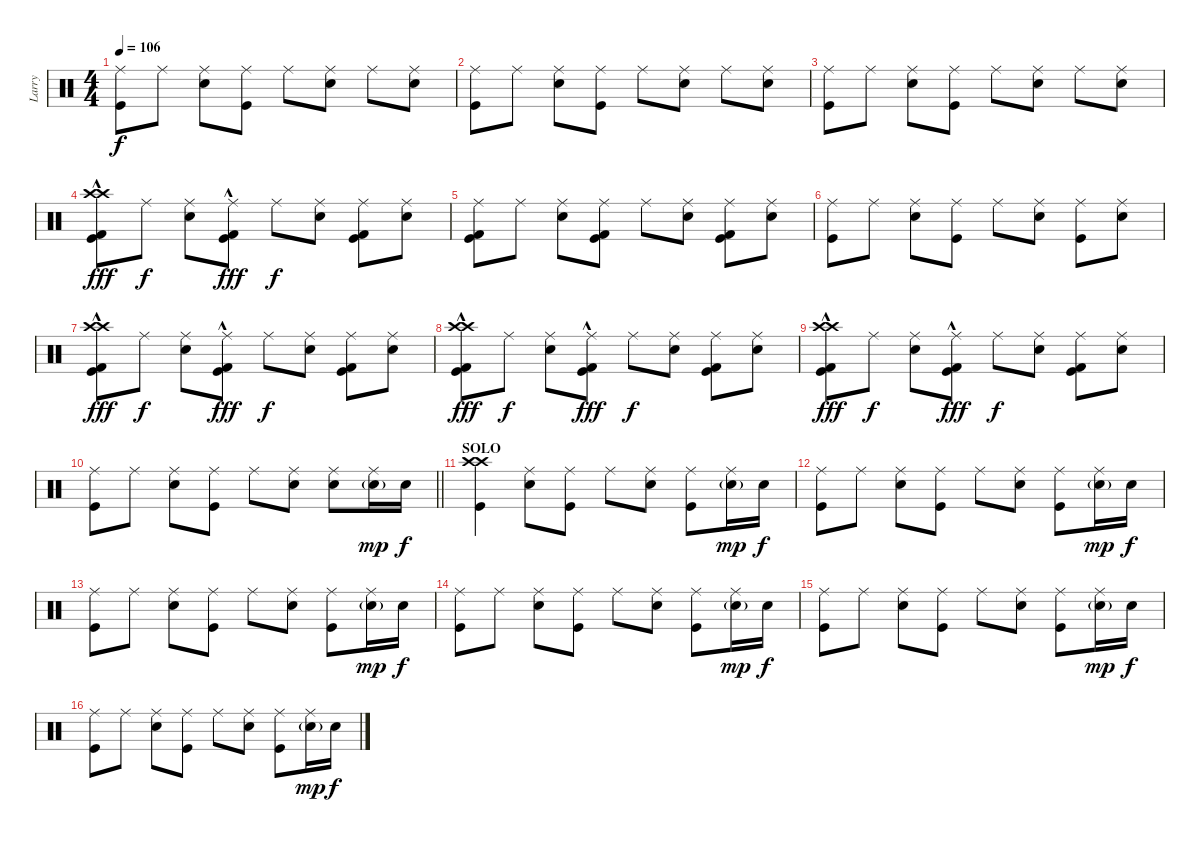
\track ("Larry" "Larry") {instrument percussion}
\staff {score}
\articulation defaults
\ts (4 4)
\tempo 106
\clef neutral
\ks c
("Ride (middle)" "Kick (hit)").8{dy f} "Ride (middle)".8 ("Ride (middle)" "Snare (hit) 2").8 ("Ride (middle)" "Kick (hit)").8 "Ride (middle)".8 ("Ride (middle)" "Snare (hit) 2").8 "Ride (middle)".8 ("Ride (middle)" "Snare (hit) 2").8 |
("Ride (middle)" "Kick (hit)").8 "Ride (middle)".8 ("Ride (middle)" "Snare (hit) 2").8 ("Ride (middle)" "Kick (hit)").8 "Ride (middle)".8 ("Ride (middle)" "Snare (hit) 2").8 "Ride (middle)".8 ("Ride (middle)" "Snare (hit) 2").8 |
("Ride (middle)" "Kick (hit)").8 "Ride (middle)".8 ("Ride (middle)" "Snare (hit) 2").8 ("Ride (middle)" "Kick (hit)").8 "Ride (middle)".8 ("Ride (middle)" "Snare (hit) 2").8 "Ride (middle)".8 ("Ride (middle)" "Snare (hit) 2").8 |
("Crash high (hit)" "Crash high (hit)" "Kick (hit) 2" "Kick (hit)"{hac}).8{dy fff} "Ride (middle)".8{dy f} ("Ride (middle)" "Snare (hit) 2").8 ("Ride (middle)" "Kick (hit) 2" "Kick (hit)"{hac}).8{dy fff} "Ride (middle)".8{dy f} ("Ride (middle)" "Snare (hit) 2").8 ("Ride (middle)" "Kick (hit) 2" "Kick (hit)").8 ("Ride (middle)" "Snare (hit) 2").8 |
("Ride (middle)" "Kick (hit) 2" "Kick (hit)").8 "Ride (middle)".8 ("Ride (middle)" "Snare (hit) 2").8 ("Ride (middle)" "Kick (hit) 2" "Kick (hit)").8 "Ride (middle)".8 ("Ride (middle)" "Snare (hit) 2").8 ("Ride (middle)" "Kick (hit) 2" "Kick (hit)").8 ("Ride (middle)" "Snare (hit) 2").8 |
("Ride (middle)" "Kick (hit)").8 "Ride (middle)".8 ("Ride (middle)" "Snare (hit) 2").8 ("Ride (middle)" "Kick (hit)").8 "Ride (middle)".8 ("Ride (middle)" "Snare (hit) 2").8 ("Ride (middle)" "Kick (hit)").8 ("Ride (middle)" "Snare (hit) 2").8 |
("Crash high (hit)" "Crash high (hit)" "Kick (hit) 2" "Kick (hit)"{hac}).8{dy fff} "Ride (middle)".8{dy f} ("Ride (middle)" "Snare (hit) 2").8 ("Ride (middle)" "Kick (hit) 2" "Kick (hit)"{hac}).8{dy fff} "Ride (middle)".8{dy f} ("Ride (middle)" "Snare (hit) 2").8 ("Ride (middle)" "Kick (hit) 2" "Kick (hit)").8 ("Ride (middle)" "Snare (hit) 2").8 |
("Crash high (hit)" "Crash high (hit)" "Kick (hit) 2" "Kick (hit)"{hac}).8{dy fff} "Ride (middle)".8{dy f} ("Ride (middle)" "Snare (hit) 2").8 ("Ride (middle)" "Kick (hit) 2" "Kick (hit)"{hac}).8{dy fff} "Ride (middle)".8{dy f} ("Ride (middle)" "Snare (hit) 2").8 ("Ride (middle)" "Kick (hit) 2" "Kick (hit)").8 ("Ride (middle)" "Snare (hit) 2").8 |
("Crash high (hit)" "Crash high (hit)" "Kick (hit) 2" "Kick (hit)"{hac}).8{dy fff} "Ride (middle)".8{dy f} ("Ride (middle)" "Snare (hit) 2").8 ("Ride (middle)" "Kick (hit) 2" "Kick (hit)"{hac}).8{dy fff} "Ride (middle)".8{dy f} ("Ride (middle)" "Snare (hit) 2").8 ("Ride (middle)" "Kick (hit) 2" "Kick (hit)").8 ("Ride (middle)" "Snare (hit) 2").8 |
\barLineRight lightlight
("Ride (middle)" "Kick (hit)").8 "Ride (middle)".8 ("Ride (middle)" "Snare (hit) 2").8 ("Ride (middle)" "Kick (hit)").8 "Ride (middle)".8 ("Ride (middle)" "Snare (hit) 2").8 ("Ride (middle)" "Snare (hit) 2").8 ("Ride (middle)" "Snare (hit) 2"{g}).16{dy mp} "Snare (hit) 2".16{dy f} |
\section ("" "SOLO")
("Crash high (hit)" "Crash high (hit)" "Kick (hit)").4 ("Ride (middle)" "Snare (hit) 2").8 ("Ride (middle)" "Kick (hit)").8 "Ride (middle)".8 ("Ride (middle)" "Snare (hit) 2").8 ("Ride (middle)" "Kick (hit)").8 ("Ride (middle)" "Snare (hit) 2"{g}).16{dy mp} "Snare (hit) 2".16{dy f} |
("Ride (middle)" "Kick (hit)").8 "Ride (middle)".8 ("Ride (middle)" "Snare (hit) 2").8 ("Ride (middle)" "Kick (hit)").8 "Ride (middle)".8 ("Ride (middle)" "Snare (hit) 2").8 ("Ride (middle)" "Kick (hit)").8 ("Ride (middle)" "Snare (hit) 2"{g}).16{dy mp} "Snare (hit) 2".16{dy f} |
("Ride (middle)" "Kick (hit)").8 "Ride (middle)".8 ("Ride (middle)" "Snare (hit) 2").8 ("Ride (middle)" "Kick (hit)").8 "Ride (middle)".8 ("Ride (middle)" "Snare (hit) 2").8 ("Ride (middle)" "Kick (hit)").8 ("Ride (middle)" "Snare (hit) 2"{g}).16{dy mp} "Snare (hit) 2".16{dy f} |
("Ride (middle)" "Kick (hit)").8 "Ride (middle)".8 ("Ride (middle)" "Snare (hit) 2").8 ("Ride (middle)" "Kick (hit)").8 "Ride (middle)".8 ("Ride (middle)" "Snare (hit) 2").8 ("Ride (middle)" "Kick (hit)").8 ("Ride (middle)" "Snare (hit) 2"{g}).16{dy mp} "Snare (hit) 2".16{dy f} |
("Ride (middle)" "Kick (hit)").8 "Ride (middle)".8 ("Ride (middle)" "Snare (hit) 2").8 ("Ride (middle)" "Kick (hit)").8 "Ride (middle)".8 ("Ride (middle)" "Snare (hit) 2").8 ("Ride (middle)" "Kick (hit)").8 ("Ride (middle)" "Snare (hit) 2"{g}).16{dy mp} "Snare (hit) 2".16{dy f} |
("Ride (middle)" "Kick (hit)").8 "Ride (middle)".8 ("Ride (middle)" "Snare (hit) 2").8 ("Ride (middle)" "Kick (hit)").8 "Ride (middle)".8 ("Ride (middle)" "Snare (hit) 2").8 ("Ride (middle)" "Kick (hit)").8 ("Ride (middle)" "Snare (hit) 2"{g}).16{dy mp} "Snare (hit) 2".16{dy f}
